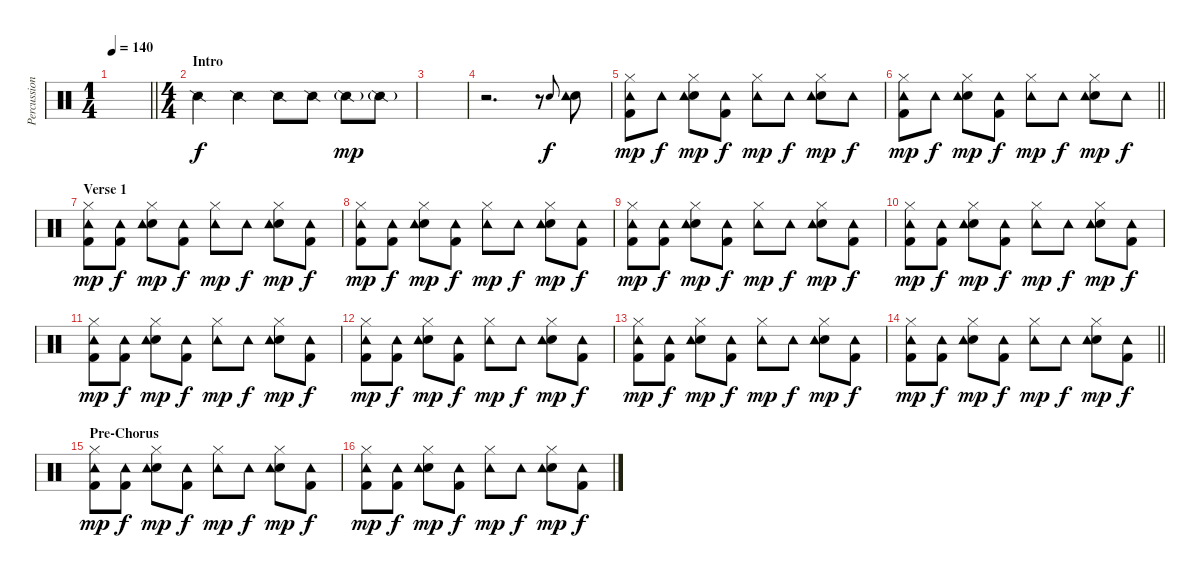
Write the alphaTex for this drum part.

\track ("Percussion" "Percussion") {instrument percussion}
\staff {score}
\articulation defaults
\ts (1 4)
\tempo 140
\clef neutral
\barLineRight lightlight
\ks c
|
\ts (4 4)
\section ("" "Intro")
"Snare (side stick) 2".4 "Snare (side stick) 2".4 "Snare (side stick) 2".8 "Snare (side stick) 2".8 "Snare (side stick) 2"{g}.8{dy mp} "Snare (side stick) 2"{g}.8 |
|
r.2{d} r.8 "Snare (hit) 2".8{gr onbeat dy f} ("Snare (hit) 2" "Tambourine (hit)").8 |
("Kick (hit) 2" "Hi-Hat (closed)" "Tambourine (hit)").8{dy mp} "Tambourine (hit)".8{dy f} ("Snare (hit) 2" "Hi-Hat (closed)" "Tambourine (hit)").8{dy mp} ("Kick (hit) 2" "Tambourine (hit)").8{dy f} ("Hi-Hat (closed)" "Tambourine (hit)").8{dy mp} "Tambourine (hit)".8{dy f} ("Snare (hit) 2" "Hi-Hat (closed)" "Tambourine (hit)").8{dy mp} "Tambourine (hit)".8{dy f} |
\barLineRight lightlight
("Kick (hit) 2" "Hi-Hat (closed)" "Tambourine (hit)").8{dy mp} "Tambourine (hit)".8{dy f} ("Snare (hit) 2" "Hi-Hat (closed)" "Tambourine (hit)").8{dy mp} ("Kick (hit) 2" "Tambourine (hit)").8{dy f} ("Hi-Hat (closed)" "Tambourine (hit)").8{dy mp} "Tambourine (hit)".8{dy f} ("Snare (hit) 2" "Hi-Hat (closed)" "Tambourine (hit)").8{dy mp} "Tambourine (hit)".8{dy f} |
\section ("" "Verse 1")
("Kick (hit) 2" "Hi-Hat (closed)" "Tambourine (hit)").8{dy mp} ("Kick (hit) 2" "Tambourine (hit)").8{dy f} ("Snare (hit) 2" "Hi-Hat (closed)" "Tambourine (hit)").8{dy mp} ("Kick (hit) 2" "Tambourine (hit)").8{dy f} ("Hi-Hat (closed)" "Tambourine (hit)").8{dy mp} "Tambourine (hit)".8{dy f} ("Snare (hit) 2" "Hi-Hat (closed)" "Tambourine (hit)").8{dy mp} ("Kick (hit) 2" "Tambourine (hit)").8{dy f} |
("Kick (hit) 2" "Hi-Hat (closed)" "Tambourine (hit)").8{dy mp} ("Kick (hit) 2" "Tambourine (hit)").8{dy f} ("Snare (hit) 2" "Hi-Hat (closed)" "Tambourine (hit)").8{dy mp} ("Kick (hit) 2" "Tambourine (hit)").8{dy f} ("Hi-Hat (closed)" "Tambourine (hit)").8{dy mp} "Tambourine (hit)".8{dy f} ("Snare (hit) 2" "Hi-Hat (closed)" "Tambourine (hit)").8{dy mp} ("Kick (hit) 2" "Tambourine (hit)").8{dy f} |
("Kick (hit) 2" "Hi-Hat (closed)" "Tambourine (hit)").8{dy mp} ("Kick (hit) 2" "Tambourine (hit)").8{dy f} ("Snare (hit) 2" "Hi-Hat (closed)" "Tambourine (hit)").8{dy mp} ("Kick (hit) 2" "Tambourine (hit)").8{dy f} ("Hi-Hat (closed)" "Tambourine (hit)").8{dy mp} "Tambourine (hit)".8{dy f} ("Snare (hit) 2" "Hi-Hat (closed)" "Tambourine (hit)").8{dy mp} ("Kick (hit) 2" "Tambourine (hit)").8{dy f} |
("Kick (hit) 2" "Hi-Hat (closed)" "Tambourine (hit)").8{dy mp} ("Kick (hit) 2" "Tambourine (hit)").8{dy f} ("Snare (hit) 2" "Hi-Hat (closed)" "Tambourine (hit)").8{dy mp} ("Kick (hit) 2" "Tambourine (hit)").8{dy f} ("Hi-Hat (closed)" "Tambourine (hit)").8{dy mp} "Tambourine (hit)".8{dy f} ("Snare (hit) 2" "Hi-Hat (closed)" "Tambourine (hit)").8{dy mp} ("Kick (hit) 2" "Tambourine (hit)").8{dy f} |
("Kick (hit) 2" "Hi-Hat (closed)" "Tambourine (hit)").8{dy mp} ("Kick (hit) 2" "Tambourine (hit)").8{dy f} ("Snare (hit) 2" "Hi-Hat (closed)" "Tambourine (hit)").8{dy mp} ("Kick (hit) 2" "Tambourine (hit)").8{dy f} ("Hi-Hat (closed)" "Tambourine (hit)").8{dy mp} "Tambourine (hit)".8{dy f} ("Snare (hit) 2" "Hi-Hat (closed)" "Tambourine (hit)").8{dy mp} ("Kick (hit) 2" "Tambourine (hit)").8{dy f} |
("Kick (hit) 2" "Hi-Hat (closed)" "Tambourine (hit)").8{dy mp} ("Kick (hit) 2" "Tambourine (hit)").8{dy f} ("Snare (hit) 2" "Hi-Hat (closed)" "Tambourine (hit)").8{dy mp} ("Kick (hit) 2" "Tambourine (hit)").8{dy f} ("Hi-Hat (closed)" "Tambourine (hit)").8{dy mp} "Tambourine (hit)".8{dy f} ("Snare (hit) 2" "Hi-Hat (closed)" "Tambourine (hit)").8{dy mp} ("Kick (hit) 2" "Tambourine (hit)").8{dy f} |
("Kick (hit) 2" "Hi-Hat (closed)" "Tambourine (hit)").8{dy mp} ("Kick (hit) 2" "Tambourine (hit)").8{dy f} ("Snare (hit) 2" "Hi-Hat (closed)" "Tambourine (hit)").8{dy mp} ("Kick (hit) 2" "Tambourine (hit)").8{dy f} ("Hi-Hat (closed)" "Tambourine (hit)").8{dy mp} "Tambourine (hit)".8{dy f} ("Snare (hit) 2" "Hi-Hat (closed)" "Tambourine (hit)").8{dy mp} ("Kick (hit) 2" "Tambourine (hit)").8{dy f} |
\barLineRight lightlight
("Kick (hit) 2" "Hi-Hat (closed)" "Tambourine (hit)").8{dy mp} ("Kick (hit) 2" "Tambourine (hit)").8{dy f} ("Snare (hit) 2" "Hi-Hat (closed)" "Tambourine (hit)").8{dy mp} ("Kick (hit) 2" "Tambourine (hit)").8{dy f} ("Hi-Hat (closed)" "Tambourine (hit)").8{dy mp} "Tambourine (hit)".8{dy f} ("Snare (hit) 2" "Hi-Hat (closed)" "Tambourine (hit)").8{dy mp} ("Kick (hit) 2" "Tambourine (hit)").8{dy f} |
\section ("" "Pre-Chorus")
("Kick (hit) 2" "Hi-Hat (closed)" "Tambourine (hit)").8{dy mp} ("Kick (hit) 2" "Tambourine (hit)").8{dy f} ("Snare (hit) 2" "Hi-Hat (closed)" "Tambourine (hit)").8{dy mp} ("Kick (hit) 2" "Tambourine (hit)").8{dy f} ("Hi-Hat (closed)" "Tambourine (hit)").8{dy mp} "Tambourine (hit)".8{dy f} ("Snare (hit) 2" "Hi-Hat (closed)" "Tambourine (hit)").8{dy mp} ("Kick (hit) 2" "Tambourine (hit)").8{dy f} |
("Kick (hit) 2" "Hi-Hat (closed)" "Tambourine (hit)").8{dy mp} ("Kick (hit) 2" "Tambourine (hit)").8{dy f} ("Snare (hit) 2" "Hi-Hat (closed)" "Tambourine (hit)").8{dy mp} ("Kick (hit) 2" "Tambourine (hit)").8{dy f} ("Hi-Hat (closed)" "Tambourine (hit)").8{dy mp} "Tambourine (hit)".8{dy f} ("Snare (hit) 2" "Hi-Hat (closed)" "Tambourine (hit)").8{dy mp} ("Kick (hit) 2" "Tambourine (hit)").8{dy f}
